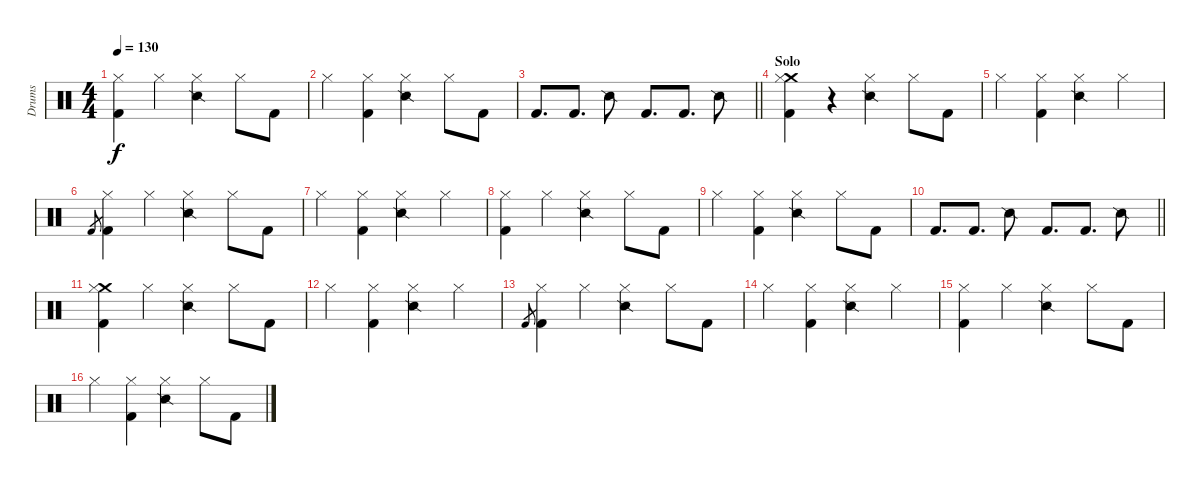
\track ("Drums" "Drums") {instrument percussion}
\staff {score}
\articulation defaults
\ts (4 4)
\tempo 130
\clef neutral
\ks c
("Hi-Hat (closed)" "Kick (hit) 2").4{dy f} "Hi-Hat (closed)".4 ("Hi-Hat (closed)" "Snare (side stick) 2").4 "Hi-Hat (closed)".8 "Kick (hit) 2".8 |
"Hi-Hat (closed)".4 ("Kick (hit) 2" "Hi-Hat (closed)").4 ("Hi-Hat (closed)" "Snare (side stick) 2").4 "Hi-Hat (closed)".8 "Kick (hit) 2".8 |
\barLineRight lightlight "Kick (hit) 2".8{d} "Kick (hit) 2".8{d} "Snare (side stick) 2".8 "Kick (hit) 2".8{d} "Kick (hit) 2".8{d} "Snare (side stick) 2".8
|
\section ("" "Solo")
("Crash medium (hit)" "Hi-Hat (closed)" "Kick (hit) 2").4 r.4 ("Hi-Hat (closed)" "Snare (side stick) 2").4 "Hi-Hat (closed)".8 "Kick (hit) 2".8 |
"Hi-Hat (closed)".4 ("Kick (hit) 2" "Hi-Hat (closed)").4 ("Hi-Hat (closed)" "Snare (side stick) 2").4 "Hi-Hat (closed)".4 |
"Kick (hit) 2".8{gr} ("Hi-Hat (closed)" "Kick (hit) 2").4 "Hi-Hat (closed)".4 ("Hi-Hat (closed)" "Snare (side stick) 2").4 "Hi-Hat (closed)".8 "Kick (hit) 2".8 |
"Hi-Hat (closed)".4 ("Kick (hit) 2" "Hi-Hat (closed)").4 ("Hi-Hat (closed)" "Snare (side stick) 2").4 "Hi-Hat (closed)".4 |
("Hi-Hat (closed)" "Kick (hit) 2").4 "Hi-Hat (closed)".4 ("Hi-Hat (closed)" "Snare (side stick) 2").4 "Hi-Hat (closed)".8 "Kick (hit) 2".8 |
"Hi-Hat (closed)".4 ("Kick (hit) 2" "Hi-Hat (closed)").4 ("Hi-Hat (closed)" "Snare (side stick) 2").4 "Hi-Hat (closed)".8 "Kick (hit) 2".8 |
\barLineRight lightlight "Kick (hit) 2".8{d} "Kick (hit) 2".8{d} "Snare (side stick) 2".8 "Kick (hit) 2".8{d} "Kick (hit) 2".8{d} "Snare (side stick) 2".8
|
("Crash medium (hit)" "Hi-Hat (closed)" "Kick (hit) 2").4 "Hi-Hat (closed)".4 ("Hi-Hat (closed)" "Snare (side stick) 2").4 "Hi-Hat (closed)".8 "Kick (hit) 2".8 |
"Hi-Hat (closed)".4 ("Kick (hit) 2" "Hi-Hat (closed)").4 ("Hi-Hat (closed)" "Snare (side stick) 2").4 "Hi-Hat (closed)".4 |
"Kick (hit) 2".8{gr} ("Hi-Hat (closed)" "Kick (hit) 2").4 "Hi-Hat (closed)".4 ("Hi-Hat (closed)" "Snare (side stick) 2").4 "Hi-Hat (closed)".8 "Kick (hit) 2".8 |
"Hi-Hat (closed)".4 ("Kick (hit) 2" "Hi-Hat (closed)").4 ("Hi-Hat (closed)" "Snare (side stick) 2").4 "Hi-Hat (closed)".4 |
("Hi-Hat (closed)" "Kick (hit) 2").4 "Hi-Hat (closed)".4 ("Hi-Hat (closed)" "Snare (side stick) 2").4 "Hi-Hat (closed)".8 "Kick (hit) 2".8 |
"Hi-Hat (closed)".4 ("Kick (hit) 2" "Hi-Hat (closed)").4 ("Hi-Hat (closed)" "Snare (side stick) 2").4 "Hi-Hat (closed)".8 "Kick (hit) 2".8
